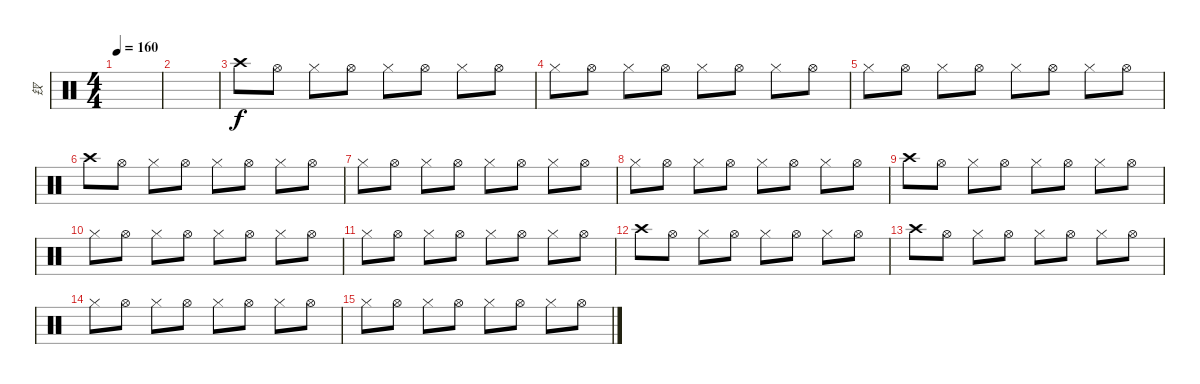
\track ("钗" "钗") {instrument percussion}
\staff {score}
\articulation defaults
\ts (4 4)
\tempo 160
\clef neutral
\ks c
|
|
"Crash high (hit)".8 "Hi-Hat (open)".8 "Hi-Hat (closed)".8 "Hi-Hat (open)".8 "Hi-Hat (closed)".8 "Hi-Hat (open)".8 "Hi-Hat (closed)".8 "Hi-Hat (open)".8 |
"Hi-Hat (closed)".8 "Hi-Hat (open)".8 "Hi-Hat (closed)".8 "Hi-Hat (open)".8 "Hi-Hat (closed)".8 "Hi-Hat (open)".8 "Hi-Hat (closed)".8 "Hi-Hat (open)".8 |
"Hi-Hat (closed)".8 "Hi-Hat (open)".8 "Hi-Hat (closed)".8 "Hi-Hat (open)".8 "Hi-Hat (closed)".8 "Hi-Hat (open)".8 "Hi-Hat (closed)".8 "Hi-Hat (open)".8 |
"Crash high (hit)".8 "Hi-Hat (open)".8 "Hi-Hat (closed)".8 "Hi-Hat (open)".8 "Hi-Hat (closed)".8 "Hi-Hat (open)".8 "Hi-Hat (closed)".8 "Hi-Hat (open)".8 |
"Hi-Hat (closed)".8 "Hi-Hat (open)".8 "Hi-Hat (closed)".8 "Hi-Hat (open)".8 "Hi-Hat (closed)".8 "Hi-Hat (open)".8 "Hi-Hat (closed)".8 "Hi-Hat (open)".8 |
"Hi-Hat (closed)".8 "Hi-Hat (open)".8 "Hi-Hat (closed)".8 "Hi-Hat (open)".8 "Hi-Hat (closed)".8 "Hi-Hat (open)".8 "Hi-Hat (closed)".8 "Hi-Hat (open)".8 |
"Crash high (hit)".8 "Hi-Hat (open)".8 "Hi-Hat (closed)".8 "Hi-Hat (open)".8 "Hi-Hat (closed)".8 "Hi-Hat (open)".8 "Hi-Hat (closed)".8 "Hi-Hat (open)".8 |
"Hi-Hat (closed)".8 "Hi-Hat (open)".8 "Hi-Hat (closed)".8 "Hi-Hat (open)".8 "Hi-Hat (closed)".8 "Hi-Hat (open)".8 "Hi-Hat (closed)".8 "Hi-Hat (open)".8 |
"Hi-Hat (closed)".8 "Hi-Hat (open)".8 "Hi-Hat (closed)".8 "Hi-Hat (open)".8 "Hi-Hat (closed)".8 "Hi-Hat (open)".8 "Hi-Hat (closed)".8 "Hi-Hat (open)".8 |
"Crash high (hit)".8 "Hi-Hat (open)".8 "Hi-Hat (closed)".8 "Hi-Hat (open)".8 "Hi-Hat (closed)".8 "Hi-Hat (open)".8 "Hi-Hat (closed)".8 "Hi-Hat (open)".8 |
"Crash high (hit)".8 "Hi-Hat (open)".8 "Hi-Hat (closed)".8 "Hi-Hat (open)".8 "Hi-Hat (closed)".8 "Hi-Hat (open)".8 "Hi-Hat (closed)".8 "Hi-Hat (open)".8 |
"Hi-Hat (closed)".8 "Hi-Hat (open)".8 "Hi-Hat (closed)".8 "Hi-Hat (open)".8 "Hi-Hat (closed)".8 "Hi-Hat (open)".8 "Hi-Hat (closed)".8 "Hi-Hat (open)".8 |
"Hi-Hat (closed)".8 "Hi-Hat (open)".8 "Hi-Hat (closed)".8 "Hi-Hat (open)".8 "Hi-Hat (closed)".8 "Hi-Hat (open)".8 "Hi-Hat (closed)".8 "Hi-Hat (open)".8
